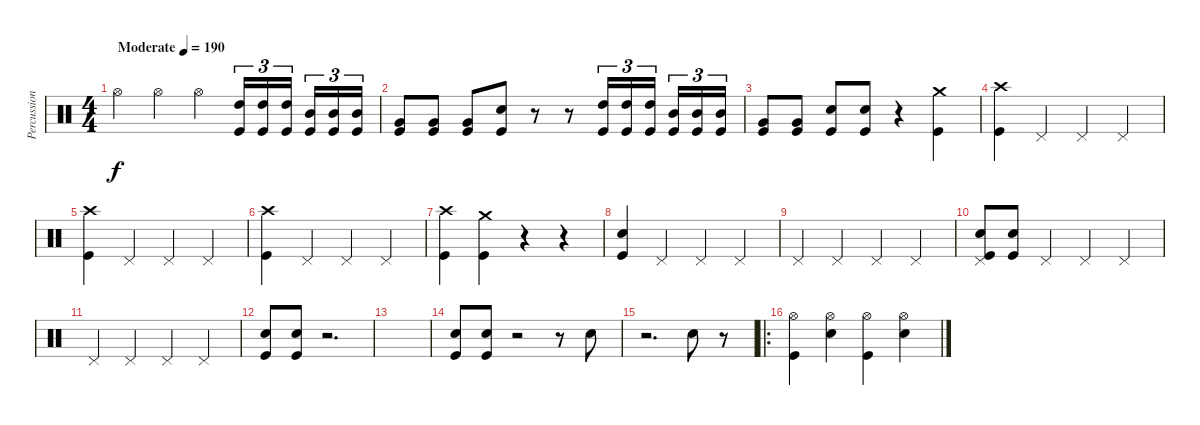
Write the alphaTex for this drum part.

\track ("Percussion" "Percussion") {instrument percussion}
\staff {score}
\articulation defaults
\ts (4 4)
\tempo (190 "Moderate")
\clef neutral
\ks c "Hi-Hat (open)".4{dy f} "Hi-Hat (open)".4 "Hi-Hat (open)".4
("High Tom (hit)" "Kick (hit)").16{tu (3 2)} ("High Tom (hit)" "Kick (hit)").16{tu (3 2)} ("High Tom (hit)" "Kick (hit)").16{tu (3 2) beam splitsecondary} ("Mid Tom (hit)" "Kick (hit)").16{tu (3 2)} ("Mid Tom (hit)" "Kick (hit)").16{tu (3 2)} ("Mid Tom (hit)" "Kick (hit)").16{tu (3 2)} |
("Very Low Tom (hit)" "Kick (hit)").8 ("Very Low Tom (hit)" "Kick (hit)").8 ("Very Low Tom (hit)" "Kick (hit)").8 ("Snare (hit) 2" "Kick (hit)").8 r.8 r.8 ("High Tom (hit)" "Kick (hit)").16{tu (3 2)} ("High Tom (hit)" "Kick (hit)").16{tu (3 2)} ("High Tom (hit)" "Kick (hit)").16{tu (3 2) beam splitsecondary} ("Mid Tom (hit)" "Kick (hit)").16{tu (3 2)} ("Mid Tom (hit)" "Kick (hit)").16{tu (3 2)} ("Mid Tom (hit)" "Kick (hit)").16{tu (3 2)} |
("Very Low Tom (hit)" "Kick (hit)").8 ("Very Low Tom (hit)" "Kick (hit)").8 ("Snare (hit) 2" "Kick (hit)").8 ("Snare (hit) 2" "Kick (hit)").8 r.4 ("Crash medium (hit)" "Kick (hit)").4 |
("Crash high (hit)" "Kick (hit)").4 "Pedal Hi-Hat (hit)".4 "Pedal Hi-Hat (hit)".4 "Pedal Hi-Hat (hit)".4 |
("Crash high (hit)" "Kick (hit)").4 "Pedal Hi-Hat (hit)".4 "Pedal Hi-Hat (hit)".4 "Pedal Hi-Hat (hit)".4 |
("Crash high (hit)" "Kick (hit)").4 "Pedal Hi-Hat (hit)".4 "Pedal Hi-Hat (hit)".4 "Pedal Hi-Hat (hit)".4 |
("Crash high (hit)" "Kick (hit)").4 ("Crash medium (hit)" "Kick (hit)").4 r.4 r.4 |
("Snare (hit) 2" "Kick (hit)").4 "Pedal Hi-Hat (hit)".4 "Pedal Hi-Hat (hit)".4 "Pedal Hi-Hat (hit)".4 |
"Pedal Hi-Hat (hit)".4 "Pedal Hi-Hat (hit)".4 "Pedal Hi-Hat (hit)".4 "Pedal Hi-Hat (hit)".4 |
("Pedal Hi-Hat (hit)" "Snare (hit) 2" "Kick (hit)").8 ("Snare (hit) 2" "Kick (hit)").8 "Pedal Hi-Hat (hit)".4 "Pedal Hi-Hat (hit)".4 "Pedal Hi-Hat (hit)".4 |
"Pedal Hi-Hat (hit)".4 "Pedal Hi-Hat (hit)".4 "Pedal Hi-Hat (hit)".4 "Pedal Hi-Hat (hit)".4 |
("Snare (hit) 2" "Kick (hit)").8 ("Snare (hit) 2" "Kick (hit)").8 r.2{d} |
|
("Snare (hit) 2" "Kick (hit)").8 ("Snare (hit) 2" "Kick (hit)").8 r.2 r.8 "Electric Snare (hit)".8 |
r.2{d} "Snare (hit) 2".8 r.8 |
\ro
("Hi-Hat (open)" "Kick (hit)").4 ("Hi-Hat (open)" "Snare (hit) 2").4 ("Hi-Hat (open)" "Kick (hit)").4 ("Hi-Hat (open)" "Snare (hit) 2").4
